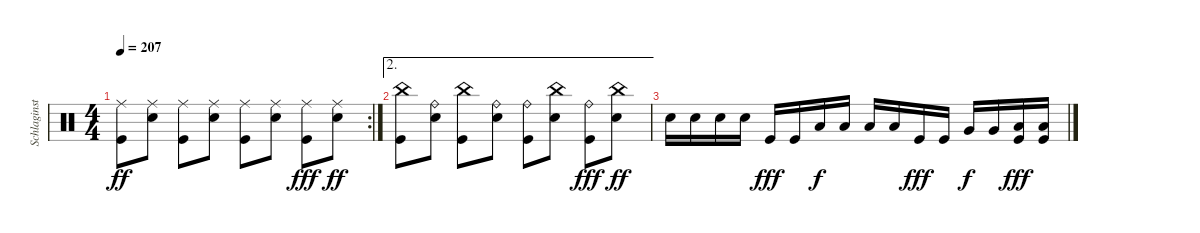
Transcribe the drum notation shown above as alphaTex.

\track ("Schlaginstrumente - Auswahl" "Schlaginst") {instrument percussion}
\staff {score}
\articulation defaults
\rc 2
\ts (4 4)
\tempo 207
\clef neutral
\ks c
("Ride (middle)" "Kick (hit)").8{dy ff} ("Ride (middle)" "Snare (hit) 2").8 ("Ride (middle)" "Kick (hit)").8 ("Ride (middle)" "Snare (hit) 2").8 ("Ride (middle)" "Kick (hit)").8 ("Ride (middle)" "Snare (hit) 2").8 ("Ride (middle)" "Kick (hit)").8{dy fff} ("Ride (middle)" "Snare (hit) 2").8{dy ff} |
\ae 2
("China (hit)" "Kick (hit)").8 ("Ride (bell)" "Snare (hit) 2").8 ("China (hit)" "Kick (hit)").8 ("Ride (bell)" "Snare (hit) 2").8 ("Ride (bell)" "Kick (hit)").8 ("China (hit)" "Snare (hit) 2").8 ("Ride (bell)" "Kick (hit)").8{dy fff} ("China (hit)" "Snare (hit) 2").8{dy ff} |
"Snare (hit) 2".16 "Snare (hit) 2".16 "Snare (hit) 2".16 "Snare (hit) 2".16 "Kick (hit)".16{dy fff} "Kick (hit)".16 "Low Tom (hit)".16{dy f} "Low Tom (hit)".16 "Low Tom (hit)".16 "Low Tom (hit)".16 "Kick (hit)".16{dy fff} "Kick (hit)".16 "Very Low Tom (hit)".16{dy f} "Very Low Tom (hit)".16 ("Low Floor Tom (hit)" "Kick (hit)").16{dy fff} ("Low Floor Tom (hit)" "Kick (hit)").16
